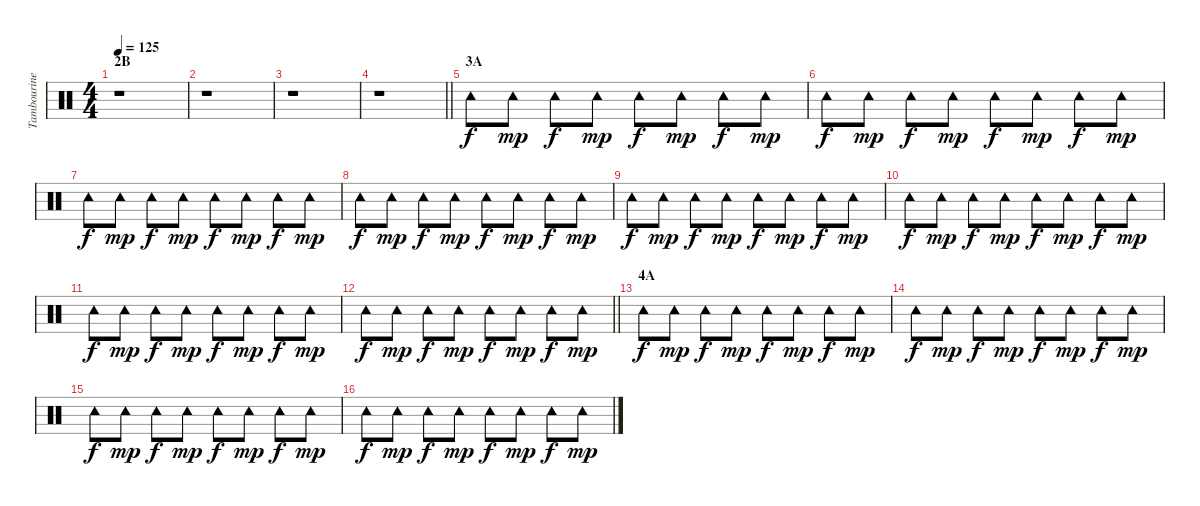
\track ("Tambourine" "Tambourine") {instrument percussion}
\staff {score}
\articulation defaults
\ts (4 4)
\section ("" "2B")
\tempo 125
\clef neutral
\ks c
r.1{dy f} |
r.1 |
r.1 |
\barLineRight lightlight
r.1 |
\section ("" "3A")
"Tambourine (hit)".8 "Tambourine (hit)".8{dy mp} "Tambourine (hit)".8{dy f} "Tambourine (hit)".8{dy mp} "Tambourine (hit)".8{dy f} "Tambourine (hit)".8{dy mp} "Tambourine (hit)".8{dy f} "Tambourine (hit)".8{dy mp} |
"Tambourine (hit)".8{dy f} "Tambourine (hit)".8{dy mp} "Tambourine (hit)".8{dy f} "Tambourine (hit)".8{dy mp} "Tambourine (hit)".8{dy f} "Tambourine (hit)".8{dy mp} "Tambourine (hit)".8{dy f} "Tambourine (hit)".8{dy mp} |
"Tambourine (hit)".8{dy f} "Tambourine (hit)".8{dy mp} "Tambourine (hit)".8{dy f} "Tambourine (hit)".8{dy mp} "Tambourine (hit)".8{dy f} "Tambourine (hit)".8{dy mp} "Tambourine (hit)".8{dy f} "Tambourine (hit)".8{dy mp} |
"Tambourine (hit)".8{dy f} "Tambourine (hit)".8{dy mp} "Tambourine (hit)".8{dy f} "Tambourine (hit)".8{dy mp} "Tambourine (hit)".8{dy f} "Tambourine (hit)".8{dy mp} "Tambourine (hit)".8{dy f} "Tambourine (hit)".8{dy mp} |
"Tambourine (hit)".8{dy f} "Tambourine (hit)".8{dy mp} "Tambourine (hit)".8{dy f} "Tambourine (hit)".8{dy mp} "Tambourine (hit)".8{dy f} "Tambourine (hit)".8{dy mp} "Tambourine (hit)".8{dy f} "Tambourine (hit)".8{dy mp} |
"Tambourine (hit)".8{dy f} "Tambourine (hit)".8{dy mp} "Tambourine (hit)".8{dy f} "Tambourine (hit)".8{dy mp} "Tambourine (hit)".8{dy f} "Tambourine (hit)".8{dy mp} "Tambourine (hit)".8{dy f} "Tambourine (hit)".8{dy mp} |
"Tambourine (hit)".8{dy f} "Tambourine (hit)".8{dy mp} "Tambourine (hit)".8{dy f} "Tambourine (hit)".8{dy mp} "Tambourine (hit)".8{dy f} "Tambourine (hit)".8{dy mp} "Tambourine (hit)".8{dy f} "Tambourine (hit)".8{dy mp} |
\barLineRight lightlight "Tambourine (hit)".8{dy f} "Tambourine (hit)".8{dy mp} "Tambourine (hit)".8{dy f} "Tambourine (hit)".8{dy mp} "Tambourine (hit)".8{dy f} "Tambourine (hit)".8{dy mp} "Tambourine (hit)".8{dy f} "Tambourine (hit)".8{dy mp}
|
\section ("" "4A")
"Tambourine (hit)".8{dy f} "Tambourine (hit)".8{dy mp} "Tambourine (hit)".8{dy f} "Tambourine (hit)".8{dy mp} "Tambourine (hit)".8{dy f} "Tambourine (hit)".8{dy mp} "Tambourine (hit)".8{dy f} "Tambourine (hit)".8{dy mp} |
"Tambourine (hit)".8{dy f} "Tambourine (hit)".8{dy mp} "Tambourine (hit)".8{dy f} "Tambourine (hit)".8{dy mp} "Tambourine (hit)".8{dy f} "Tambourine (hit)".8{dy mp} "Tambourine (hit)".8{dy f} "Tambourine (hit)".8{dy mp} |
"Tambourine (hit)".8{dy f} "Tambourine (hit)".8{dy mp} "Tambourine (hit)".8{dy f} "Tambourine (hit)".8{dy mp} "Tambourine (hit)".8{dy f} "Tambourine (hit)".8{dy mp} "Tambourine (hit)".8{dy f} "Tambourine (hit)".8{dy mp} |
"Tambourine (hit)".8{dy f} "Tambourine (hit)".8{dy mp} "Tambourine (hit)".8{dy f} "Tambourine (hit)".8{dy mp} "Tambourine (hit)".8{dy f} "Tambourine (hit)".8{dy mp} "Tambourine (hit)".8{dy f} "Tambourine (hit)".8{dy mp}
